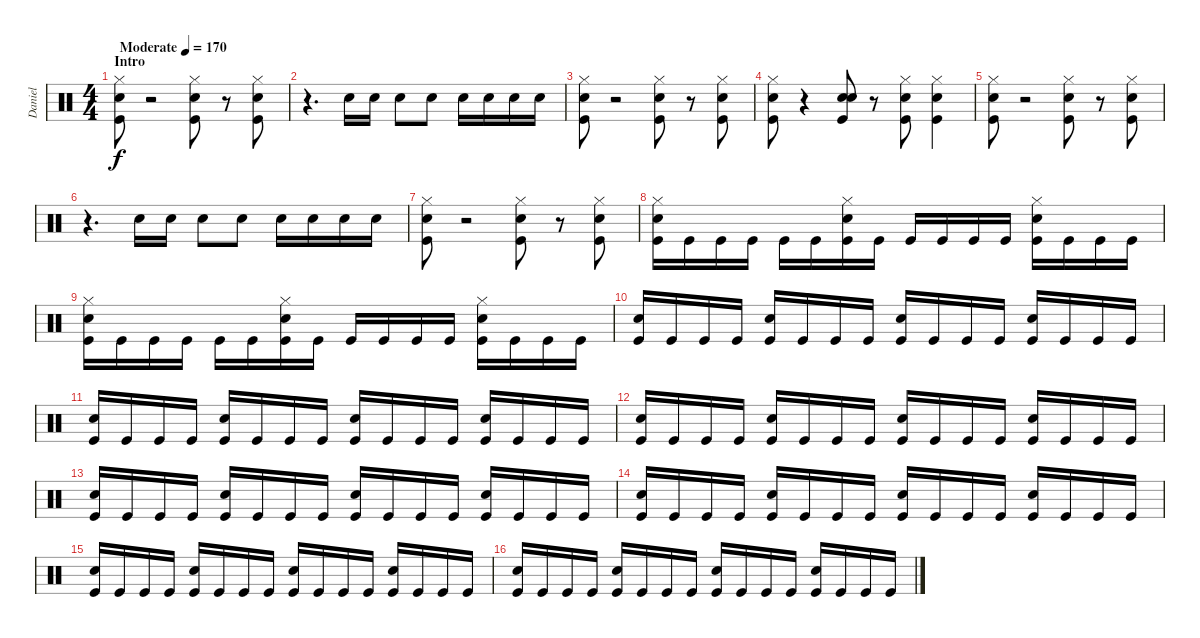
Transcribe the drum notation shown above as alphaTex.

\track ("Daniel" "Daniel") {instrument percussion}
\staff {score}
\articulation defaults
\ts (4 4)
\section ("" "Intro")
\tempo (170 "Moderate")
\clef neutral
\ks c
("Kick (hit)" "Snare (hit) 2" "Hi-Hat (closed)").8{dy f} r.2 ("Kick (hit)" "Snare (hit) 2" "Hi-Hat (closed)").8 r.8 ("Kick (hit)" "Snare (hit) 2" "Hi-Hat (closed)").8 |
r.4{d} "Snare (hit) 2".16 "Snare (hit) 2".16 "Snare (hit) 2".8 "Snare (hit) 2".8 "Snare (hit) 2".16 "Snare (hit) 2".16 "Snare (hit) 2".16 "Snare (hit) 2".16 |
("Kick (hit)" "Snare (hit) 2" "Hi-Hat (closed)").8 r.2 ("Kick (hit)" "Snare (hit) 2" "Hi-Hat (closed)").8 r.8 ("Kick (hit)" "Snare (hit) 2" "Hi-Hat (closed)").8 |
("Kick (hit)" "Snare (hit) 2" "Hi-Hat (closed)").8 r.4 ("Kick (hit)" "Snare (hit) 2" "Metronome (bell)").8 r.8 ("Kick (hit)" "Snare (hit) 2" "Hi-Hat (closed)").8 ("Kick (hit)" "Snare (hit) 2" "Hi-Hat (closed)").4 |
("Kick (hit)" "Snare (hit) 2" "Hi-Hat (closed)").8 r.2 ("Kick (hit)" "Snare (hit) 2" "Hi-Hat (closed)").8 r.8 ("Kick (hit)" "Snare (hit) 2" "Hi-Hat (closed)").8 |
r.4{d} "Snare (hit) 2".16 "Snare (hit) 2".16 "Snare (hit) 2".8 "Snare (hit) 2".8 "Snare (hit) 2".16 "Snare (hit) 2".16 "Snare (hit) 2".16 "Snare (hit) 2".16 |
("Kick (hit)" "Snare (hit) 2" "Hi-Hat (closed)").8 r.2 ("Kick (hit)" "Snare (hit) 2" "Hi-Hat (closed)").8 r.8 ("Kick (hit)" "Snare (hit) 2" "Hi-Hat (closed)").8 |
("Kick (hit)" "Snare (hit) 2" "Hi-Hat (closed)").16 "Kick (hit)".16 "Kick (hit)".16 "Kick (hit)".16 "Kick (hit)".16 "Kick (hit)".16 ("Kick (hit)" "Snare (hit) 2" "Hi-Hat (closed)").16 "Kick (hit)".16 "Kick (hit)".16 "Kick (hit)".16 "Kick (hit)".16 "Kick (hit)".16 ("Kick (hit)" "Snare (hit) 2" "Hi-Hat (closed)").16 "Kick (hit)".16 "Kick (hit)".16 "Kick (hit)".16 |
("Kick (hit)" "Snare (hit) 2" "Hi-Hat (closed)").16 "Kick (hit)".16 "Kick (hit)".16 "Kick (hit)".16 "Kick (hit)".16 "Kick (hit)".16 ("Kick (hit)" "Snare (hit) 2" "Hi-Hat (closed)").16 "Kick (hit)".16 "Kick (hit)".16 "Kick (hit)".16 "Kick (hit)".16 "Kick (hit)".16 ("Kick (hit)" "Snare (hit) 2" "Hi-Hat (closed)").16 "Kick (hit)".16 "Kick (hit)".16 "Kick (hit)".16 |
("Kick (hit)" "Snare (hit) 2").16 "Kick (hit)".16 "Kick (hit)".16 "Kick (hit)".16 ("Kick (hit)" "Snare (hit) 2").16 "Kick (hit)".16 "Kick (hit)".16 "Kick (hit)".16 ("Kick (hit)" "Snare (hit) 2").16 "Kick (hit)".16 "Kick (hit)".16 "Kick (hit)".16 ("Kick (hit)" "Snare (hit) 2").16 "Kick (hit)".16 "Kick (hit)".16 "Kick (hit)".16 |
("Kick (hit)" "Snare (hit) 2").16 "Kick (hit)".16 "Kick (hit)".16 "Kick (hit)".16 ("Kick (hit)" "Snare (hit) 2").16 "Kick (hit)".16 "Kick (hit)".16 "Kick (hit)".16 ("Kick (hit)" "Snare (hit) 2").16 "Kick (hit)".16 "Kick (hit)".16 "Kick (hit)".16 ("Kick (hit)" "Snare (hit) 2").16 "Kick (hit)".16 "Kick (hit)".16 "Kick (hit)".16 |
("Kick (hit)" "Snare (hit) 2").16 "Kick (hit)".16 "Kick (hit)".16 "Kick (hit)".16 ("Kick (hit)" "Snare (hit) 2").16 "Kick (hit)".16 "Kick (hit)".16 "Kick (hit)".16 ("Kick (hit)" "Snare (hit) 2").16 "Kick (hit)".16 "Kick (hit)".16 "Kick (hit)".16 ("Kick (hit)" "Snare (hit) 2").16 "Kick (hit)".16 "Kick (hit)".16 "Kick (hit)".16 |
("Kick (hit)" "Snare (hit) 2").16 "Kick (hit)".16 "Kick (hit)".16 "Kick (hit)".16 ("Kick (hit)" "Snare (hit) 2").16 "Kick (hit)".16 "Kick (hit)".16 "Kick (hit)".16 ("Kick (hit)" "Snare (hit) 2").16 "Kick (hit)".16 "Kick (hit)".16 "Kick (hit)".16 ("Kick (hit)" "Snare (hit) 2").16 "Kick (hit)".16 "Kick (hit)".16 "Kick (hit)".16 |
("Kick (hit)" "Snare (hit) 2").16 "Kick (hit)".16 "Kick (hit)".16 "Kick (hit)".16 ("Kick (hit)" "Snare (hit) 2").16 "Kick (hit)".16 "Kick (hit)".16 "Kick (hit)".16 ("Kick (hit)" "Snare (hit) 2").16 "Kick (hit)".16 "Kick (hit)".16 "Kick (hit)".16 ("Kick (hit)" "Snare (hit) 2").16 "Kick (hit)".16 "Kick (hit)".16 "Kick (hit)".16 |
("Kick (hit)" "Snare (hit) 2").16 "Kick (hit)".16 "Kick (hit)".16 "Kick (hit)".16 ("Kick (hit)" "Snare (hit) 2").16 "Kick (hit)".16 "Kick (hit)".16 "Kick (hit)".16 ("Kick (hit)" "Snare (hit) 2").16 "Kick (hit)".16 "Kick (hit)".16 "Kick (hit)".16 ("Kick (hit)" "Snare (hit) 2").16 "Kick (hit)".16 "Kick (hit)".16 "Kick (hit)".16 |
("Kick (hit)" "Snare (hit) 2").16 "Kick (hit)".16 "Kick (hit)".16 "Kick (hit)".16 ("Kick (hit)" "Snare (hit) 2").16 "Kick (hit)".16 "Kick (hit)".16 "Kick (hit)".16 ("Kick (hit)" "Snare (hit) 2").16 "Kick (hit)".16 "Kick (hit)".16 "Kick (hit)".16 ("Kick (hit)" "Snare (hit) 2").16 "Kick (hit)".16 "Kick (hit)".16 "Kick (hit)".16
